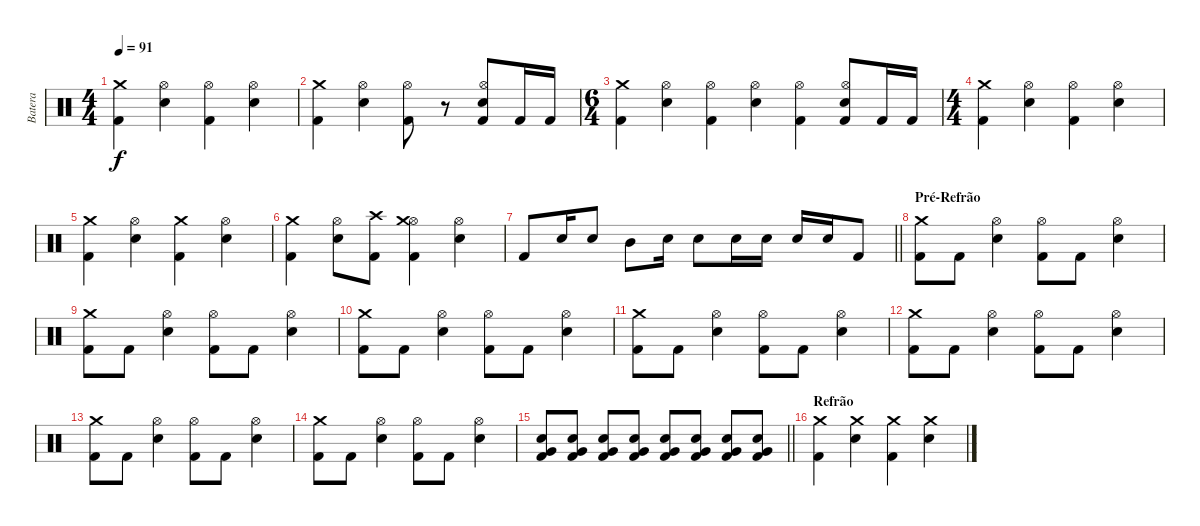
\track ("Batera" "Batera") {instrument percussion}
\staff {score}
\articulation defaults
\ts (4 4)
\tempo 91
\clef neutral
\ks c
("Crash medium (hit)" "Kick (hit) 2").4{dy f} ("Hi-Hat (open)" "Electric Snare (hit)").4 ("Hi-Hat (open)" "Kick (hit) 2").4 ("Hi-Hat (open)" "Electric Snare (hit)").4 |
("Crash medium (hit)" "Kick (hit) 2").4 ("Hi-Hat (open)" "Electric Snare (hit)").4 ("Hi-Hat (open)" "Kick (hit) 2").8 r.8 ("Hi-Hat (open)" "Electric Snare (hit)" "Kick (hit) 2").8 "Kick (hit) 2".16 "Kick (hit) 2".16 |
\ts (6 4)
("Crash medium (hit)" "Kick (hit) 2").4 ("Hi-Hat (open)" "Electric Snare (hit)").4 ("Hi-Hat (open)" "Kick (hit) 2").4 ("Hi-Hat (open)" "Electric Snare (hit)").4 ("Hi-Hat (open)" "Kick (hit) 2").4 ("Hi-Hat (open)" "Electric Snare (hit)" "Kick (hit) 2").8 "Kick (hit) 2".16 "Kick (hit) 2".16 |
\ts (4 4)
("Crash medium (hit)" "Kick (hit) 2").4 ("Hi-Hat (open)" "Electric Snare (hit)").4 ("Hi-Hat (open)" "Kick (hit) 2").4 ("Hi-Hat (open)" "Electric Snare (hit)").4 |
("Crash medium (hit)" "Kick (hit) 2").4 ("Hi-Hat (open)" "Electric Snare (hit)").4 ("Crash medium (hit)" "Kick (hit) 2").4 ("Hi-Hat (open)" "Electric Snare (hit)").4 |
("Crash medium (hit)" "Kick (hit) 2").4 ("Hi-Hat (open)" "Electric Snare (hit)").8 ("Crash high (hit)" "Kick (hit) 2").8 ("Hi-Hat (open)" "Crash medium (hit)" "Kick (hit) 2").4 ("Hi-Hat (open)" "Electric Snare (hit)").4 |
\barLineRight lightlight "Kick (hit) 2".8 "Electric Snare (hit)".16 "Electric Snare (hit)".8 "Mid Tom (hit)".8 "Electric Snare (hit)".16 "Electric Snare (hit)".8 "Electric Snare (hit)".16 "Electric Snare (hit)".16 "Electric Snare (hit)".16 "Electric Snare (hit)".16 "Kick (hit) 2".8
|
\section ("" "Pré-Refrão")
("Crash medium (hit)" "Kick (hit) 2").8 "Kick (hit) 2".8 ("Hi-Hat (open)" "Electric Snare (hit)").4 ("Hi-Hat (open)" "Kick (hit) 2").8 "Kick (hit) 2".8 ("Hi-Hat (open)" "Electric Snare (hit)").4 |
("Crash medium (hit)" "Kick (hit) 2").8 "Kick (hit) 2".8 ("Hi-Hat (open)" "Electric Snare (hit)").4 ("Hi-Hat (open)" "Kick (hit) 2").8 "Kick (hit) 2".8 ("Hi-Hat (open)" "Electric Snare (hit)").4 |
("Crash medium (hit)" "Kick (hit) 2").8 "Kick (hit) 2".8 ("Hi-Hat (open)" "Electric Snare (hit)").4 ("Hi-Hat (open)" "Kick (hit) 2").8 "Kick (hit) 2".8 ("Hi-Hat (open)" "Electric Snare (hit)").4 |
("Crash medium (hit)" "Kick (hit) 2").8 "Kick (hit) 2".8 ("Hi-Hat (open)" "Electric Snare (hit)").4 ("Hi-Hat (open)" "Kick (hit) 2").8 "Kick (hit) 2".8 ("Hi-Hat (open)" "Electric Snare (hit)").4 |
("Crash medium (hit)" "Kick (hit) 2").8 "Kick (hit) 2".8 ("Hi-Hat (open)" "Electric Snare (hit)").4 ("Hi-Hat (open)" "Kick (hit) 2").8 "Kick (hit) 2".8 ("Hi-Hat (open)" "Electric Snare (hit)").4 |
("Crash medium (hit)" "Kick (hit) 2").8 "Kick (hit) 2".8 ("Hi-Hat (open)" "Electric Snare (hit)").4 ("Hi-Hat (open)" "Kick (hit) 2").8 "Kick (hit) 2".8 ("Hi-Hat (open)" "Electric Snare (hit)").4 |
("Crash medium (hit)" "Kick (hit) 2").8 "Kick (hit) 2".8 ("Hi-Hat (open)" "Electric Snare (hit)").4 ("Hi-Hat (open)" "Kick (hit) 2").8 "Kick (hit) 2".8 ("Hi-Hat (open)" "Electric Snare (hit)").4 |
\barLineRight lightlight
("Electric Snare (hit)" "Very Low Tom (hit)" "Kick (hit) 2").8 ("Electric Snare (hit)" "Very Low Tom (hit)" "Kick (hit) 2").8 ("Electric Snare (hit)" "Very Low Tom (hit)" "Kick (hit) 2").8 ("Electric Snare (hit)" "Very Low Tom (hit)" "Kick (hit) 2").8 ("Electric Snare (hit)" "Very Low Tom (hit)" "Kick (hit) 2").8 ("Electric Snare (hit)" "Very Low Tom (hit)" "Kick (hit) 2").8 ("Electric Snare (hit)" "Very Low Tom (hit)" "Kick (hit) 2").8 ("Electric Snare (hit)" "Very Low Tom (hit)" "Kick (hit) 2").8 |
\section ("" "Refrão")
("Crash medium (hit)" "Kick (hit) 2").4 ("Crash medium (hit)" "Electric Snare (hit)").4 ("Crash medium (hit)" "Kick (hit) 2").4 ("Crash medium (hit)" "Electric Snare (hit)").4
